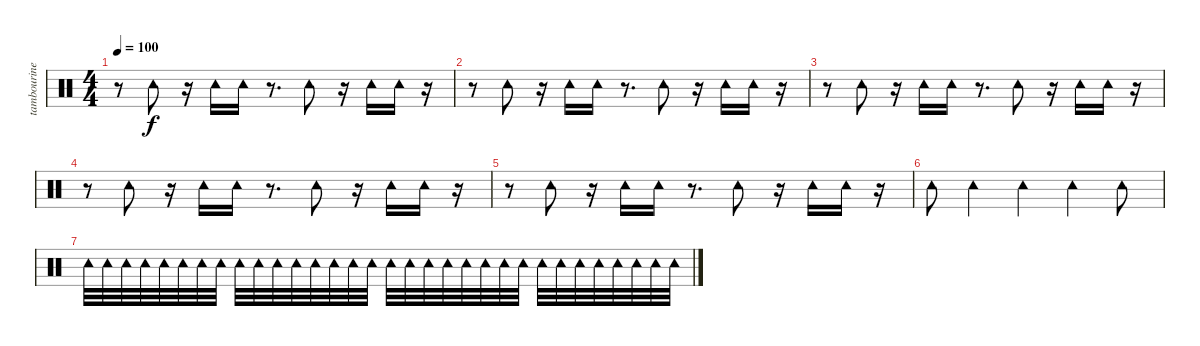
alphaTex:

\track ("tambourine (claps)" "tambourine") {instrument percussion}
\staff {score}
\articulation defaults
\ts (4 4)
\tempo 100
\clef neutral
\ks c
r.8{dy f} "Tambourine (hit)".8 r.16 "Tambourine (hit)".16 "Tambourine (hit)".16 r.8{d} "Tambourine (hit)".8 r.16 "Tambourine (hit)".16 "Tambourine (hit)".16 r.16 |
r.8 "Tambourine (hit)".8 r.16 "Tambourine (hit)".16 "Tambourine (hit)".16 r.8{d} "Tambourine (hit)".8 r.16 "Tambourine (hit)".16 "Tambourine (hit)".16 r.16 |
r.8 "Tambourine (hit)".8 r.16 "Tambourine (hit)".16 "Tambourine (hit)".16 r.8{d} "Tambourine (hit)".8 r.16 "Tambourine (hit)".16 "Tambourine (hit)".16 r.16 |
r.8 "Tambourine (hit)".8 r.16 "Tambourine (hit)".16 "Tambourine (hit)".16 r.8{d} "Tambourine (hit)".8 r.16 "Tambourine (hit)".16 "Tambourine (hit)".16 r.16 |
r.8 "Tambourine (hit)".8 r.16 "Tambourine (hit)".16 "Tambourine (hit)".16 r.8{d} "Tambourine (hit)".8 r.16 "Tambourine (hit)".16 "Tambourine (hit)".16 r.16 |
"Tambourine (hit)".8 "Tambourine (hit)".4 "Tambourine (hit)".4 "Tambourine (hit)".4 "Tambourine (hit)".8 |
"Tambourine (hit)".32 "Tambourine (hit)".32 "Tambourine (hit)".32 "Tambourine (hit)".32 "Tambourine (hit)".32 "Tambourine (hit)".32 "Tambourine (hit)".32 "Tambourine (hit)".32 "Tambourine (hit)".32 "Tambourine (hit)".32 "Tambourine (hit)".32 "Tambourine (hit)".32 "Tambourine (hit)".32 "Tambourine (hit)".32 "Tambourine (hit)".32 "Tambourine (hit)".32 "Tambourine (hit)".32 "Tambourine (hit)".32 "Tambourine (hit)".32 "Tambourine (hit)".32 "Tambourine (hit)".32 "Tambourine (hit)".32 "Tambourine (hit)".32 "Tambourine (hit)".32 "Tambourine (hit)".32 "Tambourine (hit)".32 "Tambourine (hit)".32 "Tambourine (hit)".32 "Tambourine (hit)".32 "Tambourine (hit)".32 "Tambourine (hit)".32 "Tambourine (hit)".32
